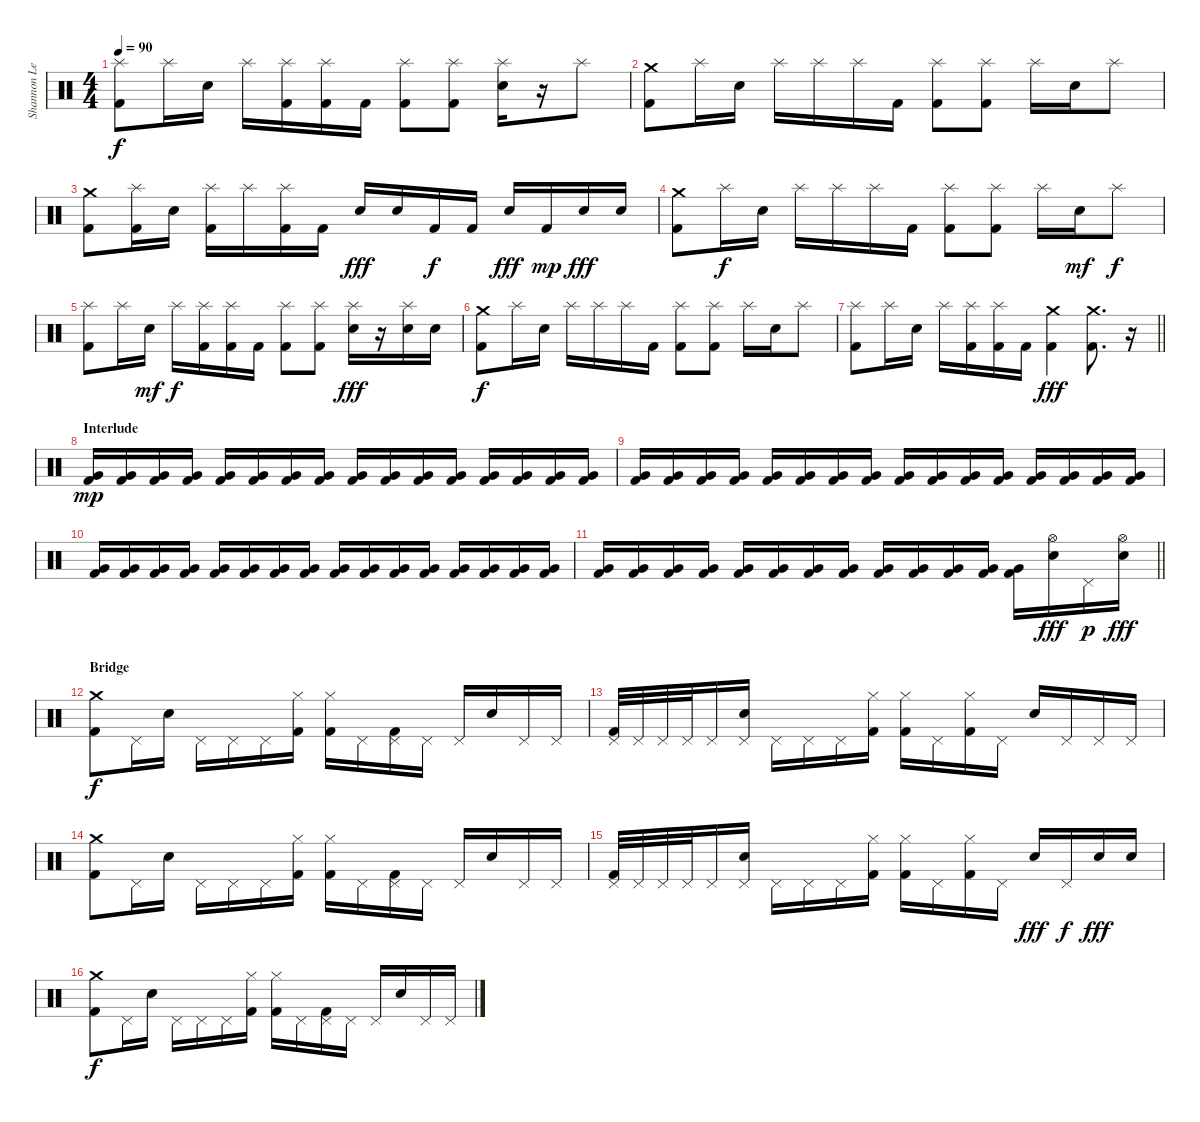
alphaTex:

\track ("Shannon Leto - Drums" "Shannon Le") {instrument percussion}
\staff {score}
\articulation defaults
\ts (4 4)
\tempo 90
\clef neutral
\ks c
("Splash (hit)" "Kick (hit) 2").8{dy f} "Splash (hit)".16 "Electric Snare (hit)".16 "Splash (hit)".16 ("Splash (hit)" "Kick (hit) 2").16 ("Splash (hit)" "Kick (hit) 2").16 "Kick (hit) 2".16 ("Splash (hit)" "Kick (hit) 2").8 ("Splash (hit)" "Kick (hit) 2").8 ("Splash (hit)" "Electric Snare (hit)").16 r.16 "Splash (hit)".8 |
("Crash medium (hit)" "Kick (hit) 2").8 "Splash (hit)".16 "Electric Snare (hit)".16 "Splash (hit)".16 "Splash (hit)".16 "Splash (hit)".16 "Kick (hit) 2".16 ("Splash (hit)" "Kick (hit) 2").8 ("Splash (hit)" "Kick (hit) 2").8 "Splash (hit)".16 "Electric Snare (hit)".16 "Splash (hit)".8 |
("Crash medium (hit)" "Kick (hit) 2").8 ("Splash (hit)" "Kick (hit) 2").16 "Electric Snare (hit)".16 ("Splash (hit)" "Kick (hit) 2").16 "Splash (hit)".16 ("Splash (hit)" "Kick (hit) 2").16 "Kick (hit) 2".16 "Electric Snare (hit)".16{dy fff} "Electric Snare (hit)".16 "Kick (hit) 2".16{dy f} "Kick (hit) 2".16 "Electric Snare (hit)".16{dy fff} "Kick (hit) 2".16{dy mp} "Electric Snare (hit)".16{dy fff} "Electric Snare (hit)".16 |
("Crash medium (hit)" "Kick (hit) 2").8 "Splash (hit)".16{dy f} "Electric Snare (hit)".16 "Splash (hit)".16 "Splash (hit)".16 "Splash (hit)".16 "Kick (hit) 2".16 ("Splash (hit)" "Kick (hit) 2").8 ("Splash (hit)" "Kick (hit) 2").8 "Splash (hit)".16 "Electric Snare (hit)".16{dy mf} "Splash (hit)".8{dy f} |
("Splash (hit)" "Kick (hit) 2").8 "Splash (hit)".16 "Electric Snare (hit)".16{dy mf} "Splash (hit)".16{dy f} ("Splash (hit)" "Kick (hit) 2").16 ("Splash (hit)" "Kick (hit) 2").16 "Kick (hit) 2".16 ("Splash (hit)" "Kick (hit) 2").8 ("Splash (hit)" "Kick (hit) 2").8 ("Splash (hit)" "Electric Snare (hit)").16{dy fff} r.16 ("Splash (hit)" "Electric Snare (hit)").16 "Electric Snare (hit)".16 |
("Crash medium (hit)" "Kick (hit) 2").8{dy f} "Splash (hit)".16 "Electric Snare (hit)".16 "Splash (hit)".16 "Splash (hit)".16 "Splash (hit)".16 "Kick (hit) 2".16 ("Splash (hit)" "Kick (hit) 2").8 ("Splash (hit)" "Kick (hit) 2").8 "Splash (hit)".16 "Electric Snare (hit)".16 "Splash (hit)".8 |
\barLineRight lightlight
("Splash (hit)" "Kick (hit) 2").8 "Splash (hit)".16 "Electric Snare (hit)".16 "Splash (hit)".16 ("Splash (hit)" "Kick (hit) 2").16 ("Splash (hit)" "Kick (hit) 2").16 "Kick (hit) 2".16 ("Crash medium (hit)" "Kick (hit) 2").4{dy fff} ("Crash medium (hit)" "Kick (hit) 2").8{d} r.16 |
\section ("" "Interlude")
("Very Low Tom (hit)" "Kick (hit) 2").16{dy mp} ("Very Low Tom (hit)" "Kick (hit) 2").16 ("Very Low Tom (hit)" "Kick (hit) 2").16 ("Very Low Tom (hit)" "Kick (hit) 2").16 ("Very Low Tom (hit)" "Kick (hit) 2").16 ("Very Low Tom (hit)" "Kick (hit) 2").16 ("Very Low Tom (hit)" "Kick (hit) 2").16 ("Very Low Tom (hit)" "Kick (hit) 2").16 ("Very Low Tom (hit)" "Kick (hit) 2").16 ("Very Low Tom (hit)" "Kick (hit) 2").16 ("Very Low Tom (hit)" "Kick (hit) 2").16 ("Very Low Tom (hit)" "Kick (hit) 2").16 ("Very Low Tom (hit)" "Kick (hit) 2").16 ("Very Low Tom (hit)" "Kick (hit) 2").16 ("Very Low Tom (hit)" "Kick (hit) 2").16 ("Very Low Tom (hit)" "Kick (hit) 2").16 |
("Very Low Tom (hit)" "Kick (hit) 2").16 ("Very Low Tom (hit)" "Kick (hit) 2").16 ("Very Low Tom (hit)" "Kick (hit) 2").16 ("Very Low Tom (hit)" "Kick (hit) 2").16 ("Very Low Tom (hit)" "Kick (hit) 2").16 ("Very Low Tom (hit)" "Kick (hit) 2").16 ("Very Low Tom (hit)" "Kick (hit) 2").16 ("Very Low Tom (hit)" "Kick (hit) 2").16 ("Very Low Tom (hit)" "Kick (hit) 2").16 ("Very Low Tom (hit)" "Kick (hit) 2").16 ("Very Low Tom (hit)" "Kick (hit) 2").16 ("Very Low Tom (hit)" "Kick (hit) 2").16 ("Very Low Tom (hit)" "Kick (hit) 2").16 ("Very Low Tom (hit)" "Kick (hit) 2").16 ("Very Low Tom (hit)" "Kick (hit) 2").16 ("Very Low Tom (hit)" "Kick (hit) 2").16 |
("Very Low Tom (hit)" "Kick (hit) 2").16 ("Very Low Tom (hit)" "Kick (hit) 2").16 ("Very Low Tom (hit)" "Kick (hit) 2").16 ("Very Low Tom (hit)" "Kick (hit) 2").16 ("Very Low Tom (hit)" "Kick (hit) 2").16 ("Very Low Tom (hit)" "Kick (hit) 2").16 ("Very Low Tom (hit)" "Kick (hit) 2").16 ("Very Low Tom (hit)" "Kick (hit) 2").16 ("Very Low Tom (hit)" "Kick (hit) 2").16 ("Very Low Tom (hit)" "Kick (hit) 2").16 ("Very Low Tom (hit)" "Kick (hit) 2").16 ("Very Low Tom (hit)" "Kick (hit) 2").16 ("Very Low Tom (hit)" "Kick (hit) 2").16 ("Very Low Tom (hit)" "Kick (hit) 2").16 ("Very Low Tom (hit)" "Kick (hit) 2").16 ("Very Low Tom (hit)" "Kick (hit) 2").16 |
\barLineRight lightlight
("Very Low Tom (hit)" "Kick (hit) 2").16 ("Very Low Tom (hit)" "Kick (hit) 2").16 ("Very Low Tom (hit)" "Kick (hit) 2").16 ("Very Low Tom (hit)" "Kick (hit) 2").16 ("Very Low Tom (hit)" "Kick (hit) 2").16 ("Very Low Tom (hit)" "Kick (hit) 2").16 ("Very Low Tom (hit)" "Kick (hit) 2").16 ("Very Low Tom (hit)" "Kick (hit) 2").16 ("Very Low Tom (hit)" "Kick (hit) 2").16 ("Very Low Tom (hit)" "Kick (hit) 2").16 ("Very Low Tom (hit)" "Kick (hit) 2").16 ("Very Low Tom (hit)" "Kick (hit) 2").16 ("Very Low Tom (hit)" "Kick (hit) 2").16 ("Hi-Hat (open)" "Electric Snare (hit)").16{dy fff} "Pedal Hi-Hat (hit)".16{dy p} ("Hi-Hat (open)" "Electric Snare (hit)").16{dy fff} |
\section ("" "Bridge")
("Crash medium (hit)" "Kick (hit) 2").8{dy f} "Pedal Hi-Hat (hit)".16 "Electric Snare (hit)".16 "Pedal Hi-Hat (hit)".16 "Pedal Hi-Hat (hit)".16 "Pedal Hi-Hat (hit)".16 ("Hi-Hat (closed)" "Kick (hit) 2").16 ("Hi-Hat (closed)" "Kick (hit) 2").16 "Pedal Hi-Hat (hit)".16 ("Pedal Hi-Hat (hit)" "Kick (hit) 2").16 "Pedal Hi-Hat (hit)".16 "Pedal Hi-Hat (hit)".16 "Electric Snare (hit)".16 "Pedal Hi-Hat (hit)".16 "Pedal Hi-Hat (hit)".16 |
("Pedal Hi-Hat (hit)" "Kick (hit) 2").32 "Pedal Hi-Hat (hit)".32 "Pedal Hi-Hat (hit)".32 "Pedal Hi-Hat (hit)".32 "Pedal Hi-Hat (hit)".16 ("Pedal Hi-Hat (hit)" "Electric Snare (hit)").16 "Pedal Hi-Hat (hit)".16 "Pedal Hi-Hat (hit)".16 "Pedal Hi-Hat (hit)".16 ("Hi-Hat (closed)" "Kick (hit) 2").16 ("Hi-Hat (closed)" "Kick (hit) 2").16 "Pedal Hi-Hat (hit)".16 ("Hi-Hat (closed)" "Kick (hit) 2").16 "Pedal Hi-Hat (hit)".16 "Electric Snare (hit)".16 "Pedal Hi-Hat (hit)".16 "Pedal Hi-Hat (hit)".16 "Pedal Hi-Hat (hit)".16 |
("Crash medium (hit)" "Kick (hit) 2").8 "Pedal Hi-Hat (hit)".16 "Electric Snare (hit)".16 "Pedal Hi-Hat (hit)".16 "Pedal Hi-Hat (hit)".16 "Pedal Hi-Hat (hit)".16 ("Hi-Hat (closed)" "Kick (hit) 2").16 ("Hi-Hat (closed)" "Kick (hit) 2").16 "Pedal Hi-Hat (hit)".16 ("Pedal Hi-Hat (hit)" "Kick (hit) 2").16 "Pedal Hi-Hat (hit)".16 "Pedal Hi-Hat (hit)".16 "Electric Snare (hit)".16 "Pedal Hi-Hat (hit)".16 "Pedal Hi-Hat (hit)".16 |
("Pedal Hi-Hat (hit)" "Kick (hit) 2").32 "Pedal Hi-Hat (hit)".32 "Pedal Hi-Hat (hit)".32 "Pedal Hi-Hat (hit)".32 "Pedal Hi-Hat (hit)".16 ("Pedal Hi-Hat (hit)" "Electric Snare (hit)").16 "Pedal Hi-Hat (hit)".16 "Pedal Hi-Hat (hit)".16 "Pedal Hi-Hat (hit)".16 ("Hi-Hat (closed)" "Kick (hit) 2").16 ("Hi-Hat (closed)" "Kick (hit) 2").16 "Pedal Hi-Hat (hit)".16 ("Hi-Hat (closed)" "Kick (hit) 2").16 "Pedal Hi-Hat (hit)".16 "Electric Snare (hit)".16{dy fff} "Pedal Hi-Hat (hit)".16{dy f} "Electric Snare (hit)".16{dy fff} "Electric Snare (hit)".16 |
("Crash medium (hit)" "Kick (hit) 2").8{dy f} "Pedal Hi-Hat (hit)".16 "Electric Snare (hit)".16 "Pedal Hi-Hat (hit)".16 "Pedal Hi-Hat (hit)".16 "Pedal Hi-Hat (hit)".16 ("Hi-Hat (closed)" "Kick (hit) 2").16 ("Hi-Hat (closed)" "Kick (hit) 2").16 "Pedal Hi-Hat (hit)".16 ("Pedal Hi-Hat (hit)" "Kick (hit) 2").16 "Pedal Hi-Hat (hit)".16 "Pedal Hi-Hat (hit)".16 "Electric Snare (hit)".16 "Pedal Hi-Hat (hit)".16 "Pedal Hi-Hat (hit)".16
